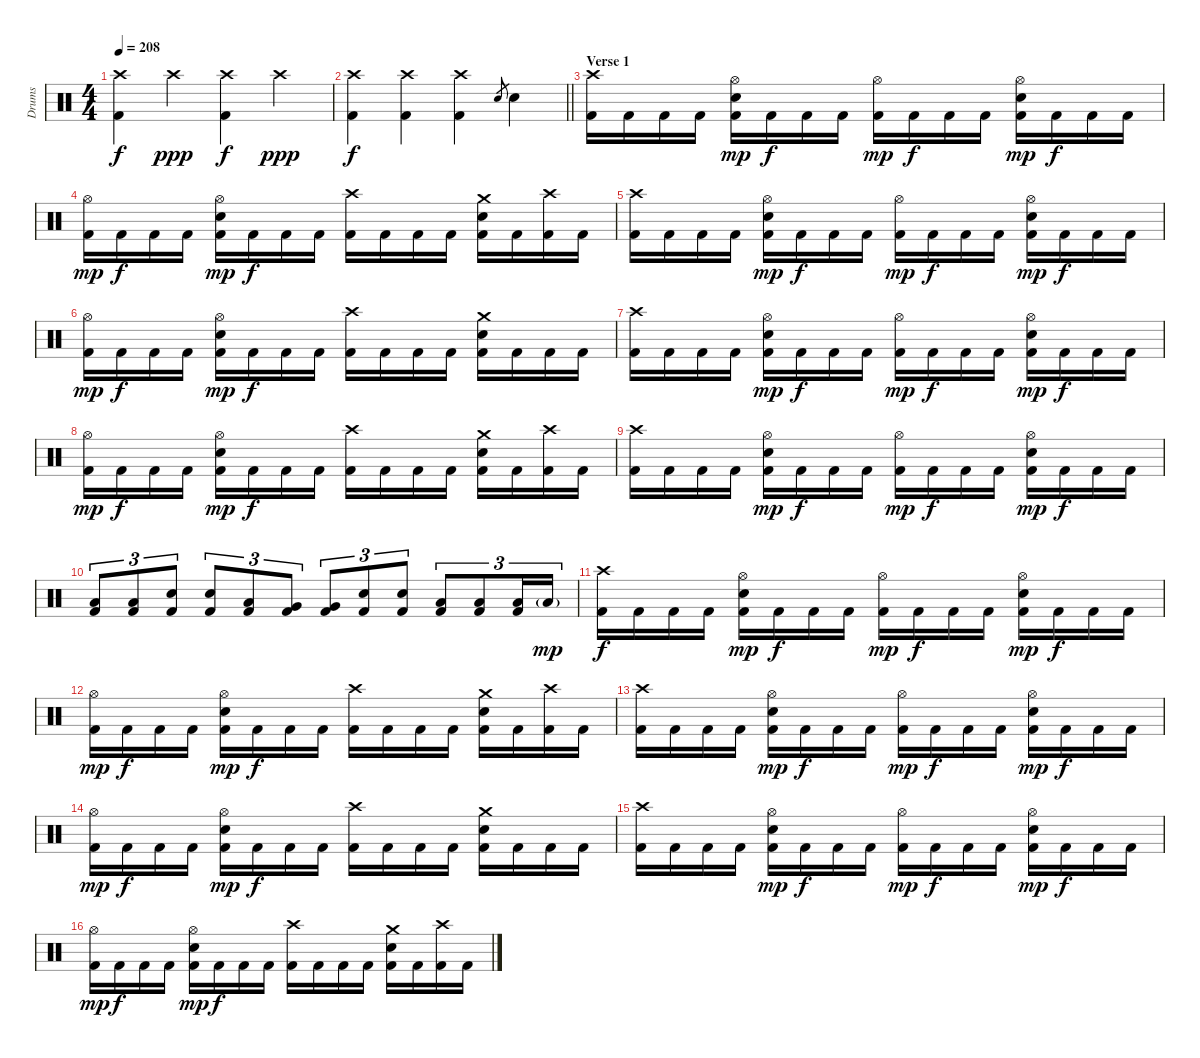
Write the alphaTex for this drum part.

\track ("Drums" "Drums") {instrument percussion}
\staff {score}
\articulation defaults
\ts (4 4)
\tempo 208
\clef neutral
\ks c
("Crash high (hit)" "Kick (hit) 2").4{dy f} "Crash high (hit)".4{dy ppp} ("Crash high (hit)" "Kick (hit) 2").4{dy f} "Crash high (hit)".4{dy ppp} |
\barLineRight lightlight
("Crash high (hit)" "Kick (hit) 2").4{dy f} ("Crash high (hit)" "Kick (hit) 2").4 ("Crash high (hit)" "Kick (hit) 2").4 "Electric Snare (hit)".8{gr} "Electric Snare (hit)".4 |
\section ("" "Verse 1")
("Crash high (hit)" "Kick (hit) 2").16 "Kick (hit) 2".16 "Kick (hit) 2".16 "Kick (hit) 2".16 ("Hi-Hat (open)" "Electric Snare (hit)" "Kick (hit) 2").16{dy mp} "Kick (hit) 2".16{dy f} "Kick (hit) 2".16 "Kick (hit) 2".16 ("Hi-Hat (open)" "Kick (hit) 2").16{dy mp} "Kick (hit) 2".16{dy f} "Kick (hit) 2".16 "Kick (hit) 2".16 ("Hi-Hat (open)" "Electric Snare (hit)" "Kick (hit) 2").16{dy mp} "Kick (hit) 2".16{dy f} "Kick (hit) 2".16 "Kick (hit) 2".16 |
("Hi-Hat (open)" "Kick (hit) 2").16{dy mp} "Kick (hit) 2".16{dy f} "Kick (hit) 2".16 "Kick (hit) 2".16 ("Hi-Hat (open)" "Electric Snare (hit)" "Kick (hit) 2").16{dy mp} "Kick (hit) 2".16{dy f} "Kick (hit) 2".16 "Kick (hit) 2".16 ("Crash high (hit)" "Kick (hit) 2").16 "Kick (hit) 2".16 "Kick (hit) 2".16 "Kick (hit) 2".16 ("Crash medium (hit)" "Electric Snare (hit)" "Kick (hit) 2").16 "Kick (hit) 2".16 ("Crash high (hit)" "Kick (hit) 2").16 "Kick (hit) 2".16 |
("Crash high (hit)" "Kick (hit) 2").16 "Kick (hit) 2".16 "Kick (hit) 2".16 "Kick (hit) 2".16 ("Hi-Hat (open)" "Electric Snare (hit)" "Kick (hit) 2").16{dy mp} "Kick (hit) 2".16{dy f} "Kick (hit) 2".16 "Kick (hit) 2".16 ("Hi-Hat (open)" "Kick (hit) 2").16{dy mp} "Kick (hit) 2".16{dy f} "Kick (hit) 2".16 "Kick (hit) 2".16 ("Hi-Hat (open)" "Electric Snare (hit)" "Kick (hit) 2").16{dy mp} "Kick (hit) 2".16{dy f} "Kick (hit) 2".16 "Kick (hit) 2".16 |
("Hi-Hat (open)" "Kick (hit) 2").16{dy mp} "Kick (hit) 2".16{dy f} "Kick (hit) 2".16 "Kick (hit) 2".16 ("Hi-Hat (open)" "Electric Snare (hit)" "Kick (hit) 2").16{dy mp} "Kick (hit) 2".16{dy f} "Kick (hit) 2".16 "Kick (hit) 2".16 ("Crash high (hit)" "Kick (hit) 2").16 "Kick (hit) 2".16 "Kick (hit) 2".16 "Kick (hit) 2".16 ("Crash medium (hit)" "Electric Snare (hit)" "Kick (hit) 2").16 "Kick (hit) 2".16 "Kick (hit) 2".16 "Kick (hit) 2".16 |
("Crash high (hit)" "Kick (hit) 2").16 "Kick (hit) 2".16 "Kick (hit) 2".16 "Kick (hit) 2".16 ("Hi-Hat (open)" "Electric Snare (hit)" "Kick (hit) 2").16{dy mp} "Kick (hit) 2".16{dy f} "Kick (hit) 2".16 "Kick (hit) 2".16 ("Hi-Hat (open)" "Kick (hit) 2").16{dy mp} "Kick (hit) 2".16{dy f} "Kick (hit) 2".16 "Kick (hit) 2".16 ("Hi-Hat (open)" "Electric Snare (hit)" "Kick (hit) 2").16{dy mp} "Kick (hit) 2".16{dy f} "Kick (hit) 2".16 "Kick (hit) 2".16 |
("Hi-Hat (open)" "Kick (hit) 2").16{dy mp} "Kick (hit) 2".16{dy f} "Kick (hit) 2".16 "Kick (hit) 2".16 ("Hi-Hat (open)" "Electric Snare (hit)" "Kick (hit) 2").16{dy mp} "Kick (hit) 2".16{dy f} "Kick (hit) 2".16 "Kick (hit) 2".16 ("Crash high (hit)" "Kick (hit) 2").16 "Kick (hit) 2".16 "Kick (hit) 2".16 "Kick (hit) 2".16 ("Crash medium (hit)" "Electric Snare (hit)" "Kick (hit) 2").16 "Kick (hit) 2".16 ("Crash high (hit)" "Kick (hit) 2").16 "Kick (hit) 2".16 |
("Crash high (hit)" "Kick (hit) 2").16 "Kick (hit) 2".16 "Kick (hit) 2".16 "Kick (hit) 2".16 ("Hi-Hat (open)" "Electric Snare (hit)" "Kick (hit) 2").16{dy mp} "Kick (hit) 2".16{dy f} "Kick (hit) 2".16 "Kick (hit) 2".16 ("Hi-Hat (open)" "Kick (hit) 2").16{dy mp} "Kick (hit) 2".16{dy f} "Kick (hit) 2".16 "Kick (hit) 2".16 ("Hi-Hat (open)" "Electric Snare (hit)" "Kick (hit) 2").16{dy mp} "Kick (hit) 2".16{dy f} "Kick (hit) 2".16 "Kick (hit) 2".16 |
("Low Tom (hit)" "Kick (hit) 2").8{tu (3 2)} ("Low Tom (hit)" "Kick (hit) 2").8{tu (3 2)} ("Electric Snare (hit)" "Kick (hit) 2").8{tu (3 2)} ("Electric Snare (hit)" "Kick (hit) 2").8{tu (3 2)} ("Low Tom (hit)" "Kick (hit) 2").8{tu (3 2)} ("Very Low Tom (hit)" "Kick (hit) 2").8{tu (3 2)} ("Very Low Tom (hit)" "Kick (hit) 2").8{tu (3 2)} ("Electric Snare (hit)" "Kick (hit) 2").8{tu (3 2)} ("Electric Snare (hit)" "Kick (hit) 2").8{tu (3 2)} ("Low Floor Tom (hit)" "Kick (hit) 2").8{tu (3 2)} ("Low Floor Tom (hit)" "Kick (hit) 2").8{tu (3 2)} ("Low Floor Tom (hit)" "Kick (hit) 2").16{tu (3 2)} "Low Floor Tom (hit)"{g}.16{tu (3 2) dy mp} |
("Crash high (hit)" "Kick (hit) 2").16{dy f} "Kick (hit) 2".16 "Kick (hit) 2".16 "Kick (hit) 2".16 ("Hi-Hat (open)" "Electric Snare (hit)" "Kick (hit) 2").16{dy mp} "Kick (hit) 2".16{dy f} "Kick (hit) 2".16 "Kick (hit) 2".16 ("Hi-Hat (open)" "Kick (hit) 2").16{dy mp} "Kick (hit) 2".16{dy f} "Kick (hit) 2".16 "Kick (hit) 2".16 ("Hi-Hat (open)" "Electric Snare (hit)" "Kick (hit) 2").16{dy mp} "Kick (hit) 2".16{dy f} "Kick (hit) 2".16 "Kick (hit) 2".16 |
("Hi-Hat (open)" "Kick (hit) 2").16{dy mp} "Kick (hit) 2".16{dy f} "Kick (hit) 2".16 "Kick (hit) 2".16 ("Hi-Hat (open)" "Electric Snare (hit)" "Kick (hit) 2").16{dy mp} "Kick (hit) 2".16{dy f} "Kick (hit) 2".16 "Kick (hit) 2".16 ("Crash high (hit)" "Kick (hit) 2").16 "Kick (hit) 2".16 "Kick (hit) 2".16 "Kick (hit) 2".16 ("Crash medium (hit)" "Electric Snare (hit)" "Kick (hit) 2").16 "Kick (hit) 2".16 ("Crash high (hit)" "Kick (hit) 2").16 "Kick (hit) 2".16 |
("Crash high (hit)" "Kick (hit) 2").16 "Kick (hit) 2".16 "Kick (hit) 2".16 "Kick (hit) 2".16 ("Hi-Hat (open)" "Electric Snare (hit)" "Kick (hit) 2").16{dy mp} "Kick (hit) 2".16{dy f} "Kick (hit) 2".16 "Kick (hit) 2".16 ("Hi-Hat (open)" "Kick (hit) 2").16{dy mp} "Kick (hit) 2".16{dy f} "Kick (hit) 2".16 "Kick (hit) 2".16 ("Hi-Hat (open)" "Electric Snare (hit)" "Kick (hit) 2").16{dy mp} "Kick (hit) 2".16{dy f} "Kick (hit) 2".16 "Kick (hit) 2".16 |
("Hi-Hat (open)" "Kick (hit) 2").16{dy mp} "Kick (hit) 2".16{dy f} "Kick (hit) 2".16 "Kick (hit) 2".16 ("Hi-Hat (open)" "Electric Snare (hit)" "Kick (hit) 2").16{dy mp} "Kick (hit) 2".16{dy f} "Kick (hit) 2".16 "Kick (hit) 2".16 ("Crash high (hit)" "Kick (hit) 2").16 "Kick (hit) 2".16 "Kick (hit) 2".16 "Kick (hit) 2".16 ("Crash medium (hit)" "Electric Snare (hit)" "Kick (hit) 2").16 "Kick (hit) 2".16 "Kick (hit) 2".16 "Kick (hit) 2".16 |
("Crash high (hit)" "Kick (hit) 2").16 "Kick (hit) 2".16 "Kick (hit) 2".16 "Kick (hit) 2".16 ("Hi-Hat (open)" "Electric Snare (hit)" "Kick (hit) 2").16{dy mp} "Kick (hit) 2".16{dy f} "Kick (hit) 2".16 "Kick (hit) 2".16 ("Hi-Hat (open)" "Kick (hit) 2").16{dy mp} "Kick (hit) 2".16{dy f} "Kick (hit) 2".16 "Kick (hit) 2".16 ("Hi-Hat (open)" "Electric Snare (hit)" "Kick (hit) 2").16{dy mp} "Kick (hit) 2".16{dy f} "Kick (hit) 2".16 "Kick (hit) 2".16 |
("Hi-Hat (open)" "Kick (hit) 2").16{dy mp} "Kick (hit) 2".16{dy f} "Kick (hit) 2".16 "Kick (hit) 2".16 ("Hi-Hat (open)" "Electric Snare (hit)" "Kick (hit) 2").16{dy mp} "Kick (hit) 2".16{dy f} "Kick (hit) 2".16 "Kick (hit) 2".16 ("Crash high (hit)" "Kick (hit) 2").16 "Kick (hit) 2".16 "Kick (hit) 2".16 "Kick (hit) 2".16 ("Crash medium (hit)" "Electric Snare (hit)" "Kick (hit) 2").16 "Kick (hit) 2".16 ("Crash high (hit)" "Kick (hit) 2").16 "Kick (hit) 2".16
